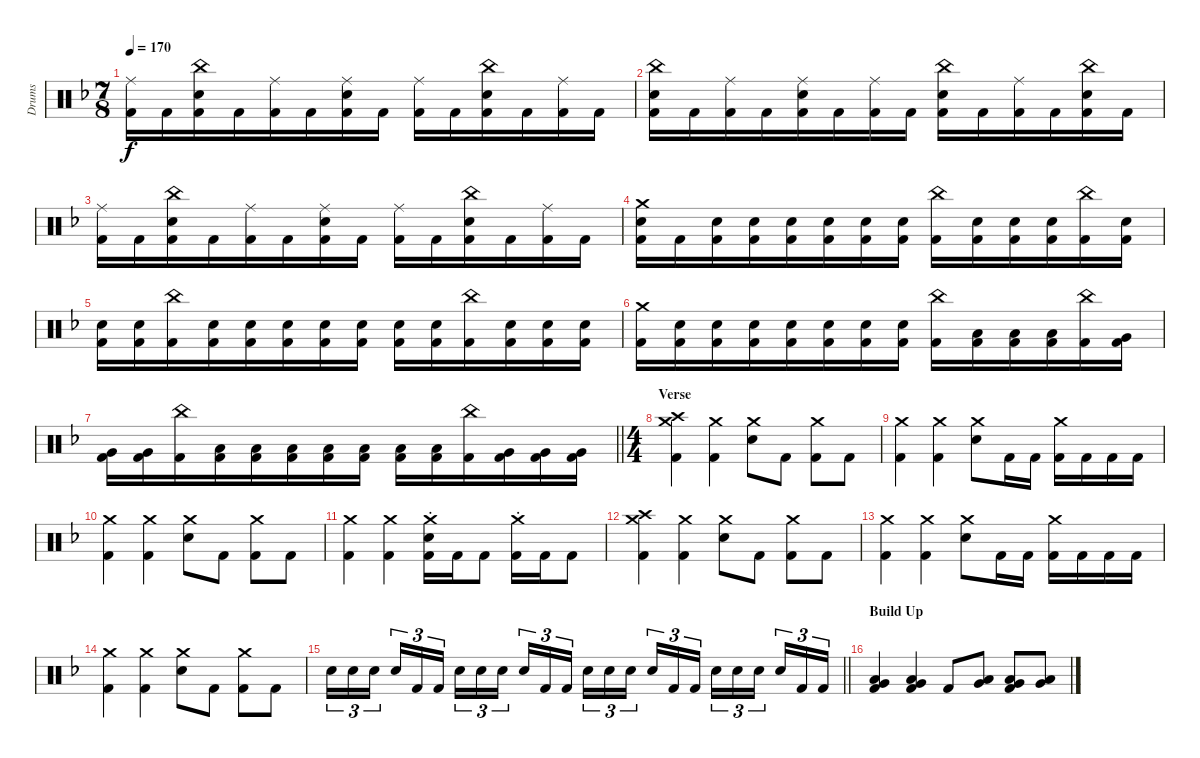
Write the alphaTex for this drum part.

\track ("Drums" "Drums") {instrument percussion}
\staff {score}
\articulation defaults
\ts (7 8)
\tempo 170
\clef neutral
\ks dminor
("Ride (middle)" "Kick (hit) 2").16{dy f} "Kick (hit) 2".16 ("China (hit)" "Electric Snare (hit)" "Kick (hit) 2").16 "Kick (hit) 2".16 ("Ride (middle)" "Kick (hit) 2").16 "Kick (hit) 2".16 ("Ride (middle)" "Electric Snare (hit)" "Kick (hit) 2").16 "Kick (hit) 2".16 ("Ride (middle)" "Kick (hit) 2").16 "Kick (hit) 2".16 ("China (hit)" "Electric Snare (hit)" "Kick (hit) 2").16 "Kick (hit) 2".16 ("Ride (middle)" "Kick (hit) 2").16 "Kick (hit) 2".16 |
("China (hit)" "Electric Snare (hit)" "Kick (hit) 2").16 "Kick (hit) 2".16 ("Ride (middle)" "Kick (hit) 2").16 "Kick (hit) 2".16 ("Ride (middle)" "Electric Snare (hit)" "Kick (hit) 2").16 "Kick (hit) 2".16 ("Ride (middle)" "Kick (hit) 2").16 "Kick (hit) 2".16 ("China (hit)" "Electric Snare (hit)" "Kick (hit) 2").16 "Kick (hit) 2".16 ("Ride (middle)" "Kick (hit) 2").16 "Kick (hit) 2".16 ("China (hit)" "Electric Snare (hit)" "Kick (hit) 2").16 "Kick (hit) 2".16 |
("Ride (middle)" "Kick (hit) 2").16 "Kick (hit) 2".16 ("China (hit)" "Electric Snare (hit)" "Kick (hit) 2").16 "Kick (hit) 2".16 ("Ride (middle)" "Kick (hit) 2").16 "Kick (hit) 2".16 ("Ride (middle)" "Electric Snare (hit)" "Kick (hit) 2").16 "Kick (hit) 2".16 ("Ride (middle)" "Kick (hit) 2").16 "Kick (hit) 2".16 ("China (hit)" "Electric Snare (hit)" "Kick (hit) 2").16 "Kick (hit) 2".16 ("Ride (middle)" "Kick (hit) 2").16 "Kick (hit) 2".16 |
("Crash medium (hit)" "Electric Snare (hit)" "Kick (hit) 2").16 "Kick (hit) 2".16 ("Electric Snare (hit)" "Kick (hit) 2").16 ("Electric Snare (hit)" "Kick (hit) 2").16 ("Electric Snare (hit)" "Kick (hit) 2").16 ("Electric Snare (hit)" "Kick (hit) 2").16 ("Electric Snare (hit)" "Kick (hit) 2").16 ("Electric Snare (hit)" "Kick (hit) 2").16 ("China (hit)" "Kick (hit) 2").16 ("Electric Snare (hit)" "Kick (hit) 2").16 ("Electric Snare (hit)" "Kick (hit) 2").16 ("Electric Snare (hit)" "Kick (hit) 2").16 ("China (hit)" "Kick (hit) 2").16 ("Electric Snare (hit)" "Kick (hit) 2").16 |
("Electric Snare (hit)" "Kick (hit) 2").16 ("Electric Snare (hit)" "Kick (hit) 2").16 ("China (hit)" "Kick (hit) 2").16 ("Electric Snare (hit)" "Kick (hit) 2").16 ("Electric Snare (hit)" "Kick (hit) 2").16 ("Electric Snare (hit)" "Kick (hit) 2").16 ("Electric Snare (hit)" "Kick (hit) 2").16 ("Electric Snare (hit)" "Kick (hit) 2").16 ("Electric Snare (hit)" "Kick (hit) 2").16 ("Electric Snare (hit)" "Kick (hit) 2").16 ("China (hit)" "Kick (hit) 2").16 ("Electric Snare (hit)" "Kick (hit) 2").16 ("Electric Snare (hit)" "Kick (hit) 2").16 ("Electric Snare (hit)" "Kick (hit) 2").16 |
("Crash medium (hit)" "Kick (hit) 2").16 ("Electric Snare (hit)" "Kick (hit) 2").16 ("Electric Snare (hit)" "Kick (hit) 2").16 ("Electric Snare (hit)" "Kick (hit) 2").16 ("Electric Snare (hit)" "Kick (hit) 2").16 ("Electric Snare (hit)" "Kick (hit) 2").16 ("Electric Snare (hit)" "Kick (hit) 2").16 ("Electric Snare (hit)" "Kick (hit) 2").16 ("China (hit)" "Kick (hit) 2").16 ("Low Tom (hit)" "Kick (hit) 2").16 ("Low Tom (hit)" "Kick (hit) 2").16 ("Low Tom (hit)" "Kick (hit) 2").16 ("China (hit)" "Kick (hit) 2").16 ("Very Low Tom (hit)" "Kick (hit) 2").16 |
\barLineRight lightlight
("Very Low Tom (hit)" "Kick (hit) 2").16 ("Very Low Tom (hit)" "Kick (hit) 2").16 ("China (hit)" "Kick (hit) 2").16 ("Low Floor Tom (hit)" "Kick (hit) 2").16 ("Low Floor Tom (hit)" "Kick (hit) 2").16 ("Low Floor Tom (hit)" "Kick (hit) 2").16 ("Low Floor Tom (hit)" "Kick (hit) 2").16 ("Low Floor Tom (hit)" "Kick (hit) 2").16 ("Low Floor Tom (hit)" "Kick (hit) 2").16 ("Low Floor Tom (hit)" "Kick (hit) 2").16 ("China (hit)" "Kick (hit) 2").16 ("Very Low Tom (hit)" "Kick (hit) 2").16 ("Very Low Tom (hit)" "Kick (hit) 2").16 ("Very Low Tom (hit)" "Kick (hit) 2").16 |
\ts (4 4)
\section ("" "Verse")
("Crash medium (hit)" "Crash high (hit)" "Kick (hit) 2").4 ("Crash medium (hit)" "Kick (hit) 2").4 ("Crash medium (hit)" "Electric Snare (hit)").8 "Kick (hit) 2".8 ("Crash medium (hit)" "Kick (hit) 2").8 "Kick (hit) 2".8 |
("Crash medium (hit)" "Kick (hit) 2").4 ("Crash medium (hit)" "Kick (hit) 2").4 ("Crash medium (hit)" "Electric Snare (hit)").8 "Kick (hit) 2".16 "Kick (hit) 2".16 ("Crash medium (hit)" "Kick (hit) 2").16 "Kick (hit) 2".16 "Kick (hit) 2".16 "Kick (hit) 2".16 |
("Crash medium (hit)" "Kick (hit) 2").4 ("Crash medium (hit)" "Kick (hit) 2").4 ("Crash medium (hit)" "Electric Snare (hit)").8 "Kick (hit) 2".8 ("Crash medium (hit)" "Kick (hit) 2").8 "Kick (hit) 2".8 |
("Crash medium (hit)" "Kick (hit) 2").4 ("Crash medium (hit)" "Kick (hit) 2").4 ("Crash medium (hit)"{st} "Electric Snare (hit)" "Kick (hit) 2").16 "Kick (hit) 2".16 "Kick (hit) 2".8 ("Crash medium (hit)"{st} "Kick (hit) 2").16 "Kick (hit) 2".16 "Kick (hit) 2".8 |
("Crash medium (hit)" "Crash high (hit)" "Kick (hit) 2").4 ("Crash medium (hit)" "Kick (hit) 2").4 ("Crash medium (hit)" "Electric Snare (hit)").8 "Kick (hit) 2".8 ("Crash medium (hit)" "Kick (hit) 2").8 "Kick (hit) 2".8 |
("Crash medium (hit)" "Kick (hit) 2").4 ("Crash medium (hit)" "Kick (hit) 2").4 ("Crash medium (hit)" "Electric Snare (hit)").8 "Kick (hit) 2".16 "Kick (hit) 2".16 ("Crash medium (hit)" "Kick (hit) 2").16 "Kick (hit) 2".16 "Kick (hit) 2".16 "Kick (hit) 2".16 |
("Crash medium (hit)" "Kick (hit) 2").4 ("Crash medium (hit)" "Kick (hit) 2").4 ("Crash medium (hit)" "Electric Snare (hit)").8 "Kick (hit) 2".8 ("Crash medium (hit)" "Kick (hit) 2").8 "Kick (hit) 2".8 |
\barLineRight lightlight "Electric Snare (hit)".16{tu (3 2)} "Electric Snare (hit)".16{tu (3 2)} "Electric Snare (hit)".16{tu (3 2) beam splitsecondary} "Electric Snare (hit)".16{tu (3 2)} "Kick (hit) 2".16{tu (3 2)} "Kick (hit) 2".16{tu (3 2)} "Electric Snare (hit)".16{tu (3 2)} "Electric Snare (hit)".16{tu (3 2)} "Electric Snare (hit)".16{tu (3 2) beam splitsecondary} "Electric Snare (hit)".16{tu (3 2)} "Kick (hit) 2".16{tu (3 2)} "Kick (hit) 2".16{tu (3 2)} "Electric Snare (hit)".16{tu (3 2)} "Electric Snare (hit)".16{tu (3 2)} "Electric Snare (hit)".16{tu (3 2) beam splitsecondary} "Electric Snare (hit)".16{tu (3 2)} "Kick (hit) 2".16{tu (3 2)} "Kick (hit) 2".16{tu (3 2)} "Electric Snare (hit)".16{tu (3 2)} "Electric Snare (hit)".16{tu (3 2)} "Electric Snare (hit)".16{tu (3 2) beam splitsecondary} "Electric Snare (hit)".16{tu (3 2)} "Kick (hit) 2".16{tu (3 2)} "Kick (hit) 2".16{tu (3 2)}
|
\section ("" "Build Up")
("Very Low Tom (hit)" "Low Floor Tom (hit)" "Kick (hit) 2").4 ("Very Low Tom (hit)" "Low Floor Tom (hit)" "Kick (hit) 2").4 "Kick (hit) 2".8 ("Very Low Tom (hit)" "Low Floor Tom (hit)").8 ("Very Low Tom (hit)" "Low Floor Tom (hit)" "Kick (hit) 2").8 ("Very Low Tom (hit)" "Low Floor Tom (hit)").8
